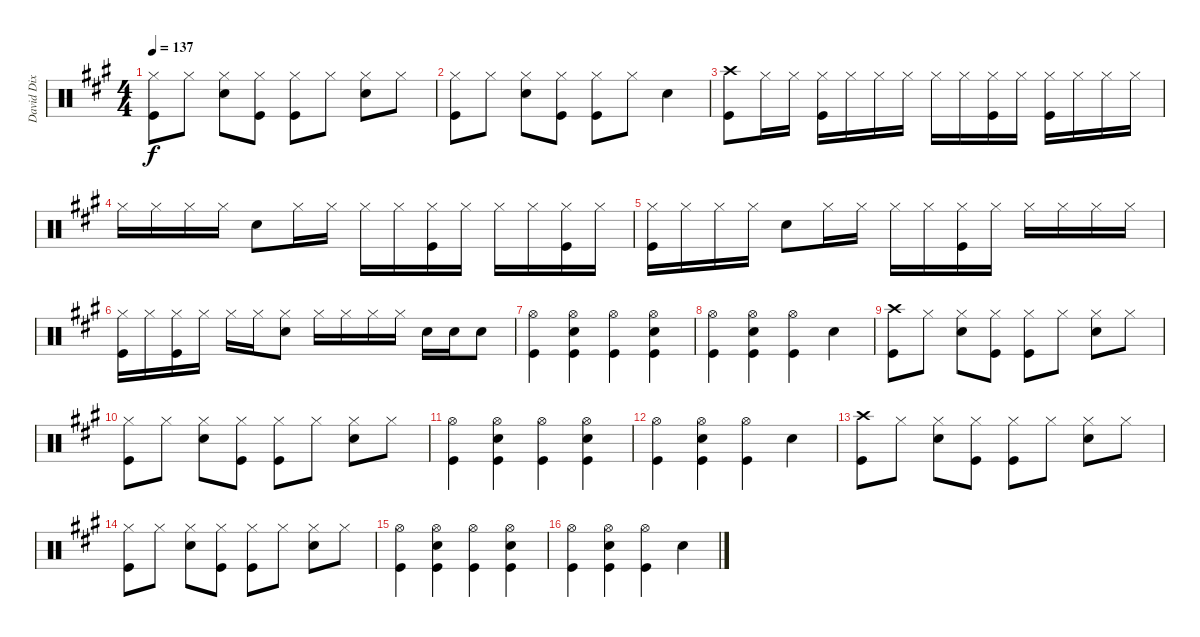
\track ("David Dix Drums" "David Dix ") {instrument percussion}
\staff {score}
\articulation defaults
\ts (4 4)
\tempo 137
\clef neutral
\ks a
("Hi-Hat (closed)" "Kick (hit)").8{dy f} "Hi-Hat (closed)".8 ("Hi-Hat (closed)" "Snare (hit) 2").8 ("Hi-Hat (closed)" "Kick (hit)").8 ("Hi-Hat (closed)" "Kick (hit)").8 "Hi-Hat (closed)".8 ("Hi-Hat (closed)" "Snare (hit) 2").8 "Hi-Hat (closed)".8 |
("Hi-Hat (closed)" "Kick (hit)").8 "Hi-Hat (closed)".8 ("Hi-Hat (closed)" "Snare (hit) 2").8 ("Hi-Hat (closed)" "Kick (hit)").8 ("Hi-Hat (closed)" "Kick (hit)").8 "Hi-Hat (closed)".8 "Snare (hit) 2".4 |
("Crash high (hit)" "Kick (hit)").8 "Hi-Hat (closed)".16 "Hi-Hat (closed)".16 ("Hi-Hat (closed)" "Kick (hit)").16 "Hi-Hat (closed)".16 "Hi-Hat (closed)".16 "Hi-Hat (closed)".16 "Hi-Hat (closed)".16 "Hi-Hat (closed)".16 ("Hi-Hat (closed)" "Kick (hit)").16 "Hi-Hat (closed)".16 ("Hi-Hat (closed)" "Kick (hit)").16 "Hi-Hat (closed)".16 "Hi-Hat (closed)".16 "Hi-Hat (closed)".16 |
"Hi-Hat (closed)".16 "Hi-Hat (closed)".16 "Hi-Hat (closed)".16 "Hi-Hat (closed)".16 "Snare (hit) 2".8 "Hi-Hat (closed)".16 "Hi-Hat (closed)".16 "Hi-Hat (closed)".16 "Hi-Hat (closed)".16 ("Hi-Hat (closed)" "Kick (hit)").16 "Hi-Hat (closed)".16 "Hi-Hat (closed)".16 "Hi-Hat (closed)".16 ("Hi-Hat (closed)" "Kick (hit)").16 "Hi-Hat (closed)".16 |
("Hi-Hat (closed)" "Kick (hit)").16 "Hi-Hat (closed)".16 "Hi-Hat (closed)".16 "Hi-Hat (closed)".16 "Snare (hit) 2".8 "Hi-Hat (closed)".16 "Hi-Hat (closed)".16 "Hi-Hat (closed)".16 "Hi-Hat (closed)".16 ("Hi-Hat (closed)" "Kick (hit)").16 "Hi-Hat (closed)".16 "Hi-Hat (closed)".16 "Hi-Hat (closed)".16 "Hi-Hat (closed)".16 "Hi-Hat (closed)".16 |
("Hi-Hat (closed)" "Kick (hit)").16 "Hi-Hat (closed)".16 ("Hi-Hat (closed)" "Kick (hit)").16 "Hi-Hat (closed)".16 "Hi-Hat (closed)".16 "Hi-Hat (closed)".16 ("Hi-Hat (closed)" "Snare (hit) 2").8 "Hi-Hat (closed)".16 "Hi-Hat (closed)".16 "Hi-Hat (closed)".16 "Hi-Hat (closed)".16 "Snare (hit) 2".16 "Snare (hit) 2".16 "Snare (hit) 2".8 |
("Hi-Hat (open)" "Kick (hit)").4 ("Hi-Hat (open)" "Snare (hit) 2" "Kick (hit)").4 ("Hi-Hat (open)" "Kick (hit)").4 ("Hi-Hat (open)" "Snare (hit) 2" "Kick (hit)").4 |
("Hi-Hat (open)" "Kick (hit)").4 ("Hi-Hat (open)" "Snare (hit) 2" "Kick (hit)").4 ("Hi-Hat (open)" "Kick (hit)").4 "Snare (hit) 2".4 |
("Crash high (hit)" "Kick (hit)").8 "Hi-Hat (closed)".8 ("Hi-Hat (closed)" "Snare (hit) 2").8 ("Hi-Hat (closed)" "Kick (hit)").8 ("Hi-Hat (closed)" "Kick (hit)").8 "Hi-Hat (closed)".8 ("Hi-Hat (closed)" "Snare (hit) 2").8 "Hi-Hat (closed)".8 |
("Hi-Hat (closed)" "Kick (hit)").8 "Hi-Hat (closed)".8 ("Hi-Hat (closed)" "Snare (hit) 2").8 ("Hi-Hat (closed)" "Kick (hit)").8 ("Hi-Hat (closed)" "Kick (hit)").8 "Hi-Hat (closed)".8 ("Hi-Hat (closed)" "Snare (hit) 2").8 "Hi-Hat (closed)".8 |
("Hi-Hat (open)" "Kick (hit)").4 ("Hi-Hat (open)" "Snare (hit) 2" "Kick (hit)").4 ("Hi-Hat (open)" "Kick (hit)").4 ("Hi-Hat (open)" "Snare (hit) 2" "Kick (hit)").4 |
("Hi-Hat (open)" "Kick (hit)").4 ("Hi-Hat (open)" "Snare (hit) 2" "Kick (hit)").4 ("Hi-Hat (open)" "Kick (hit)").4 "Snare (hit) 2".4 |
("Crash high (hit)" "Kick (hit)").8 "Hi-Hat (closed)".8 ("Hi-Hat (closed)" "Snare (hit) 2").8 ("Hi-Hat (closed)" "Kick (hit)").8 ("Hi-Hat (closed)" "Kick (hit)").8 "Hi-Hat (closed)".8 ("Hi-Hat (closed)" "Snare (hit) 2").8 "Hi-Hat (closed)".8 |
("Hi-Hat (closed)" "Kick (hit)").8 "Hi-Hat (closed)".8 ("Hi-Hat (closed)" "Snare (hit) 2").8 ("Hi-Hat (closed)" "Kick (hit)").8 ("Hi-Hat (closed)" "Kick (hit)").8 "Hi-Hat (closed)".8 ("Hi-Hat (closed)" "Snare (hit) 2").8 "Hi-Hat (closed)".8 |
("Hi-Hat (open)" "Kick (hit)").4 ("Hi-Hat (open)" "Snare (hit) 2" "Kick (hit)").4 ("Hi-Hat (open)" "Kick (hit)").4 ("Hi-Hat (open)" "Snare (hit) 2" "Kick (hit)").4 |
("Hi-Hat (open)" "Kick (hit)").4 ("Hi-Hat (open)" "Snare (hit) 2" "Kick (hit)").4 ("Hi-Hat (open)" "Kick (hit)").4 "Snare (hit) 2".4
